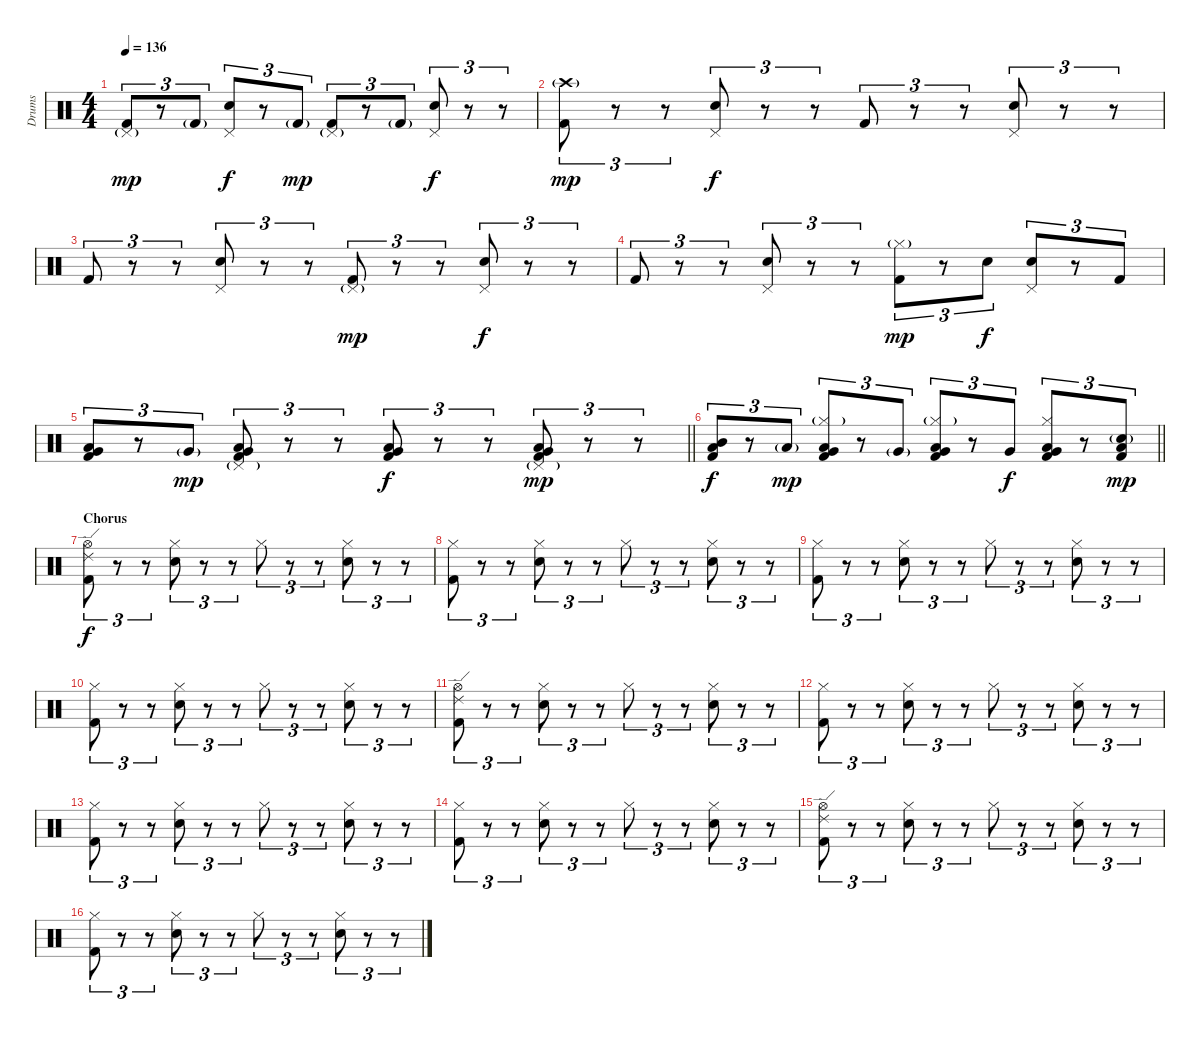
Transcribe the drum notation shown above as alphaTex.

\track ("Drums" "Drums") {instrument percussion}
\staff {score}
\articulation defaults
\ts (4 4)
\tempo 136
\clef neutral
\ks c
("Pedal Hi-Hat (hit)"{g} "Kick (hit) 2").8{tu (3 2) dy mp} r.8{tu (3 2)} "Kick (hit) 2"{g}.8{tu (3 2)} ("Pedal Hi-Hat (hit)" "Snare (hit) 2").8{tu (3 2) dy f} r.8{tu (3 2)} "Kick (hit) 2"{g}.8{tu (3 2) dy mp} ("Pedal Hi-Hat (hit)"{g} "Kick (hit) 2").8{tu (3 2)} r.8{tu (3 2)} "Kick (hit) 2"{g}.8{tu (3 2)} ("Pedal Hi-Hat (hit)" "Snare (hit) 2").8{tu (3 2) dy f} r.8{tu (3 2)} r.8{tu (3 2)} |
("Crash high (hit)"{g} "Kick (hit) 2").8{tu (3 2) dy mp} r.8{tu (3 2)} r.8{tu (3 2)} ("Pedal Hi-Hat (hit)" "Snare (hit) 2").8{tu (3 2) dy f} r.8{tu (3 2)} r.8{tu (3 2)} "Kick (hit) 2".8{tu (3 2)} r.8{tu (3 2)} r.8{tu (3 2)} ("Pedal Hi-Hat (hit)" "Snare (hit) 2").8{tu (3 2)} r.8{tu (3 2)} r.8{tu (3 2)} |
"Kick (hit) 2".8{tu (3 2)} r.8{tu (3 2)} r.8{tu (3 2)} ("Pedal Hi-Hat (hit)" "Snare (hit) 2").8{tu (3 2)} r.8{tu (3 2)} r.8{tu (3 2)} ("Pedal Hi-Hat (hit)"{g} "Kick (hit) 2").8{tu (3 2) dy mp} r.8{tu (3 2)} r.8{tu (3 2)} ("Pedal Hi-Hat (hit)" "Snare (hit) 2").8{tu (3 2) dy f} r.8{tu (3 2)} r.8{tu (3 2)} |
"Kick (hit) 2".8{tu (3 2)} r.8{tu (3 2)} r.8{tu (3 2)} ("Pedal Hi-Hat (hit)" "Snare (hit) 2").8{tu (3 2)} r.8{tu (3 2)} r.8{tu (3 2)} ("Hi-Hat (closed)"{g} "Kick (hit) 2").8{tu (3 2) dy mp} r.8{tu (3 2)} "Snare (hit) 2".8{tu (3 2) dy f} ("Pedal Hi-Hat (hit)" "Snare (hit) 2").8{tu (3 2)} r.8{tu (3 2)} "Kick (hit) 2".8{tu (3 2)} |
\barLineRight lightlight
("Low Tom (hit)" "Very Low Tom (hit)" "Kick (hit) 2").8{tu (3 2)} r.8{tu (3 2)} "Very Low Tom (hit)"{g}.8{tu (3 2) dy mp} ("Pedal Hi-Hat (hit)"{g} "Low Tom (hit)" "Very Low Tom (hit)" "Kick (hit) 2").8{tu (3 2)} r.8{tu (3 2)} r.8{tu (3 2)} ("Very Low Tom (hit)" "Low Floor Tom (hit)" "Kick (hit) 2").8{tu (3 2) dy f} r.8{tu (3 2)} r.8{tu (3 2)} ("Pedal Hi-Hat (hit)"{g} "Low Tom (hit)" "Very Low Tom (hit)" "Kick (hit) 2").8{tu (3 2) dy mp} r.8{tu (3 2)} r.8{tu (3 2)} |
\barLineRight lightlight
("Mid Tom (hit)" "Low Tom (hit)" "Kick (hit) 2").8{tu (3 2) dy f} r.8{tu (3 2)} "Low Tom (hit)"{g}.8{tu (3 2) dy mp} ("Hi-Hat (closed)"{g} "Low Tom (hit)" "Very Low Tom (hit)" "Kick (hit) 2").8{tu (3 2)} r.8{tu (3 2)} "Very Low Tom (hit)"{g}.8{tu (3 2)} ("Hi-Hat (closed)"{g} "Very Low Tom (hit)" "Low Floor Tom (hit)" "Kick (hit) 2").8{tu (3 2)} r.8{tu (3 2)} "Very Low Tom (hit)".8{tu (3 2) dy f} ("Hi-Hat (closed)" "Low Tom (hit)" "Very Low Tom (hit)" "Kick (hit) 2").8{tu (3 2)} r.8{tu (3 2)} ("Low Floor Tom (hit)" "Snare (hit) 2"{g} "Kick (hit) 2").8{tu (3 2) dy mp} |
\section ("" "Chorus ")
("Ride (edge) 2" "Hi-Hat (open)" "Kick (hit) 2").8{tu (3 2) dy f} r.8{tu (3 2)} r.8{tu (3 2)} ("Hi-Hat (closed)" "Snare (hit) 2").8{tu (3 2)} r.8{tu (3 2)} r.8{tu (3 2)} "Hi-Hat (closed)".8{tu (3 2)} r.8{tu (3 2)} r.8{tu (3 2)} ("Hi-Hat (closed)" "Snare (hit) 2").8{tu (3 2)} r.8{tu (3 2)} r.8{tu (3 2)} |
("Hi-Hat (closed)" "Kick (hit) 2").8{tu (3 2)} r.8{tu (3 2)} r.8{tu (3 2)} ("Hi-Hat (closed)" "Snare (hit) 2").8{tu (3 2)} r.8{tu (3 2)} r.8{tu (3 2)} "Hi-Hat (closed)".8{tu (3 2)} r.8{tu (3 2)} r.8{tu (3 2)} ("Hi-Hat (closed)" "Snare (hit) 2").8{tu (3 2)} r.8{tu (3 2)} r.8{tu (3 2)} |
("Hi-Hat (closed)" "Kick (hit) 2").8{tu (3 2)} r.8{tu (3 2)} r.8{tu (3 2)} ("Hi-Hat (closed)" "Snare (hit) 2").8{tu (3 2)} r.8{tu (3 2)} r.8{tu (3 2)} "Hi-Hat (closed)".8{tu (3 2)} r.8{tu (3 2)} r.8{tu (3 2)} ("Hi-Hat (closed)" "Snare (hit) 2").8{tu (3 2)} r.8{tu (3 2)} r.8{tu (3 2)} |
("Hi-Hat (closed)" "Kick (hit) 2").8{tu (3 2)} r.8{tu (3 2)} r.8{tu (3 2)} ("Hi-Hat (closed)" "Snare (hit) 2").8{tu (3 2)} r.8{tu (3 2)} r.8{tu (3 2)} "Hi-Hat (closed)".8{tu (3 2)} r.8{tu (3 2)} r.8{tu (3 2)} ("Hi-Hat (closed)" "Snare (hit) 2").8{tu (3 2)} r.8{tu (3 2)} r.8{tu (3 2)} |
("Ride (edge) 2" "Hi-Hat (open)" "Kick (hit) 2").8{tu (3 2)} r.8{tu (3 2)} r.8{tu (3 2)} ("Hi-Hat (closed)" "Snare (hit) 2").8{tu (3 2)} r.8{tu (3 2)} r.8{tu (3 2)} "Hi-Hat (closed)".8{tu (3 2)} r.8{tu (3 2)} r.8{tu (3 2)} ("Hi-Hat (closed)" "Snare (hit) 2").8{tu (3 2)} r.8{tu (3 2)} r.8{tu (3 2)} |
("Hi-Hat (closed)" "Kick (hit) 2").8{tu (3 2)} r.8{tu (3 2)} r.8{tu (3 2)} ("Hi-Hat (closed)" "Snare (hit) 2").8{tu (3 2)} r.8{tu (3 2)} r.8{tu (3 2)} "Hi-Hat (closed)".8{tu (3 2)} r.8{tu (3 2)} r.8{tu (3 2)} ("Hi-Hat (closed)" "Snare (hit) 2").8{tu (3 2)} r.8{tu (3 2)} r.8{tu (3 2)} |
("Hi-Hat (closed)" "Kick (hit) 2").8{tu (3 2)} r.8{tu (3 2)} r.8{tu (3 2)} ("Hi-Hat (closed)" "Snare (hit) 2").8{tu (3 2)} r.8{tu (3 2)} r.8{tu (3 2)} "Hi-Hat (closed)".8{tu (3 2)} r.8{tu (3 2)} r.8{tu (3 2)} ("Hi-Hat (closed)" "Snare (hit) 2").8{tu (3 2)} r.8{tu (3 2)} r.8{tu (3 2)} |
("Hi-Hat (closed)" "Kick (hit) 2").8{tu (3 2)} r.8{tu (3 2)} r.8{tu (3 2)} ("Hi-Hat (closed)" "Snare (hit) 2").8{tu (3 2)} r.8{tu (3 2)} r.8{tu (3 2)} "Hi-Hat (closed)".8{tu (3 2)} r.8{tu (3 2)} r.8{tu (3 2)} ("Hi-Hat (closed)" "Snare (hit) 2").8{tu (3 2)} r.8{tu (3 2)} r.8{tu (3 2)} |
("Ride (edge) 2" "Hi-Hat (open)" "Kick (hit) 2").8{tu (3 2)} r.8{tu (3 2)} r.8{tu (3 2)} ("Hi-Hat (closed)" "Snare (hit) 2").8{tu (3 2)} r.8{tu (3 2)} r.8{tu (3 2)} "Hi-Hat (closed)".8{tu (3 2)} r.8{tu (3 2)} r.8{tu (3 2)} ("Hi-Hat (closed)" "Snare (hit) 2").8{tu (3 2)} r.8{tu (3 2)} r.8{tu (3 2)} |
("Hi-Hat (closed)" "Kick (hit) 2").8{tu (3 2)} r.8{tu (3 2)} r.8{tu (3 2)} ("Hi-Hat (closed)" "Snare (hit) 2").8{tu (3 2)} r.8{tu (3 2)} r.8{tu (3 2)} "Hi-Hat (closed)".8{tu (3 2)} r.8{tu (3 2)} r.8{tu (3 2)} ("Hi-Hat (closed)" "Snare (hit) 2").8{tu (3 2)} r.8{tu (3 2)} r.8{tu (3 2)}
